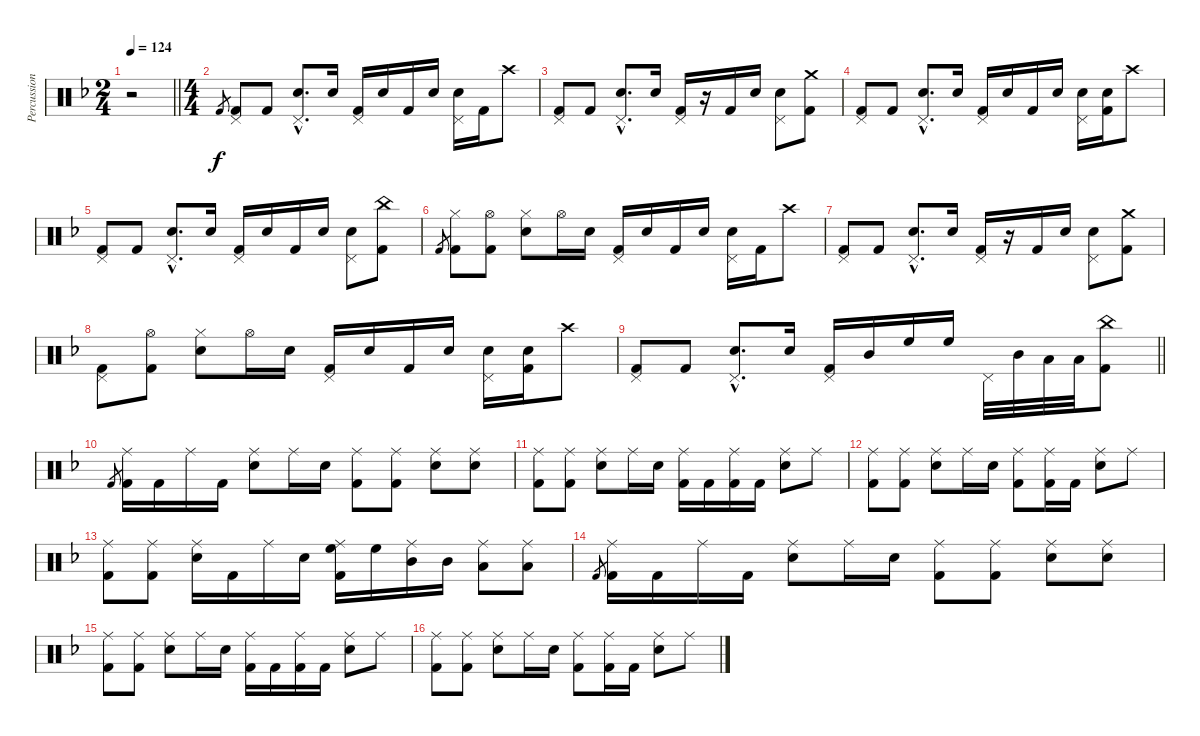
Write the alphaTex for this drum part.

\track ("Percussions" "Percussion") {instrument percussion}
\staff {score}
\articulation defaults
\ts (2 4)
\tempo 124
\clef neutral
\barLineRight lightlight
\ks dminor
r.2{dy f} |
\ts (4 4)
"Kick (hit) 2".8{gr} ("Pedal Hi-Hat (hit)" "Kick (hit) 2").8{volume 14} "Kick (hit) 2".8 ("Pedal Hi-Hat (hit)"{hac} "Snare (hit) 2"{hac}).8{d} "Snare (hit) 2".16 ("Pedal Hi-Hat (hit)" "Kick (hit) 2").16 "Snare (hit) 2".16 "Kick (hit) 2".16 "Snare (hit) 2".16 ("Pedal Hi-Hat (hit)" "Snare (hit) 2").16 "Kick (hit) 2".16 "Crash high (hit)".8 |
("Pedal Hi-Hat (hit)" "Kick (hit) 2").8 "Kick (hit) 2".8 ("Pedal Hi-Hat (hit)"{hac} "Snare (hit) 2"{hac}).8{d} "Snare (hit) 2".16 ("Pedal Hi-Hat (hit)" "Kick (hit) 2").16 r.16 "Kick (hit) 2".16 "Snare (hit) 2".16 ("Pedal Hi-Hat (hit)" "Snare (hit) 2").8 ("Crash medium (hit)" "Kick (hit) 2").8 |
("Pedal Hi-Hat (hit)" "Kick (hit) 2").8 "Kick (hit) 2".8 ("Pedal Hi-Hat (hit)"{hac} "Snare (hit) 2"{hac}).8{d} "Snare (hit) 2".16 ("Pedal Hi-Hat (hit)" "Kick (hit) 2").16 "Snare (hit) 2".16 "Kick (hit) 2".16 "Snare (hit) 2".16 ("Pedal Hi-Hat (hit)" "Snare (hit) 2").16 ("Snare (hit) 2" "Kick (hit) 2").16 "Crash high (hit)".8 |
("Pedal Hi-Hat (hit)" "Kick (hit) 2").8 "Kick (hit) 2".8 ("Pedal Hi-Hat (hit)"{hac} "Snare (hit) 2"{hac}).8{d} "Snare (hit) 2".16 ("Pedal Hi-Hat (hit)" "Kick (hit) 2").16 "Snare (hit) 2".16 "Kick (hit) 2".16 "Snare (hit) 2".16 ("Pedal Hi-Hat (hit)" "Snare (hit) 2").8 ("China (hit)" "Kick (hit) 2").8 |
"Kick (hit) 2".8{gr} ("Hi-Hat (closed)" "Kick (hit) 2").8 ("Hi-Hat (open)" "Kick (hit) 2").8 ("Hi-Hat (closed)" "Snare (hit) 2").8 "Hi-Hat (open)".16 "Snare (hit) 2".16 ("Pedal Hi-Hat (hit)" "Kick (hit) 2").16 "Snare (hit) 2".16 "Kick (hit) 2".16 "Snare (hit) 2".16 ("Pedal Hi-Hat (hit)" "Snare (hit) 2").16 "Kick (hit) 2".16 "Crash high (hit)".8 |
("Pedal Hi-Hat (hit)" "Kick (hit) 2").8 "Kick (hit) 2".8 ("Pedal Hi-Hat (hit)"{hac} "Snare (hit) 2"{hac}).8{d} "Snare (hit) 2".16 ("Pedal Hi-Hat (hit)" "Kick (hit) 2").16 r.16 "Kick (hit) 2".16 "Snare (hit) 2".16 ("Pedal Hi-Hat (hit)" "Snare (hit) 2").8 ("Crash medium (hit)" "Kick (hit) 2").8 |
("Pedal Hi-Hat (hit)" "Kick (hit) 2").8 ("Hi-Hat (open)" "Kick (hit) 2").8 ("Hi-Hat (closed)" "Snare (hit) 2").8 "Hi-Hat (open)".16 "Snare (hit) 2".16 ("Pedal Hi-Hat (hit)" "Kick (hit) 2").16 "Snare (hit) 2".16 "Kick (hit) 2".16 "Snare (hit) 2".16 ("Pedal Hi-Hat (hit)" "Snare (hit) 2").16 ("Snare (hit) 2" "Kick (hit) 2").16 "Crash high (hit)".8 |
\barLineRight lightlight
("Pedal Hi-Hat (hit)" "Kick (hit) 2").8 "Kick (hit) 2".8 ("Pedal Hi-Hat (hit)"{hac} "Snare (hit) 2"{hac}).8{d} "Snare (hit) 2".16 ("Pedal Hi-Hat (hit)" "Kick (hit) 2").16 "Mid Tom (hit)".16 "High Floor Tom (hit)".16 "High Floor Tom (hit)".16 "Pedal Hi-Hat (hit)".32 "Mid Tom (hit)".32 "Low Tom (hit)".32 "Low Tom (hit)".32 ("China (hit)" "Kick (hit) 2").8 |
"Kick (hit) 2".8{gr} ("Ride (middle)" "Kick (hit) 2").16 "Kick (hit) 2".16 "Ride (middle)".16 "Kick (hit) 2".16 ("Ride (middle)" "Snare (hit) 2").8 "Ride (middle)".16 "Snare (hit) 2".16 ("Ride (middle)" "Kick (hit) 2").8 ("Ride (middle)" "Kick (hit) 2").8 ("Ride (middle)" "Snare (hit) 2").8 ("Ride (middle)" "Snare (hit) 2").8 |
("Ride (middle)" "Kick (hit) 2").8 ("Ride (middle)" "Kick (hit) 2").8 ("Ride (middle)" "Snare (hit) 2").8 "Ride (middle)".16 "Snare (hit) 2".16 ("Ride (middle)" "Kick (hit) 2").16 "Kick (hit) 2".16 ("Ride (middle)" "Kick (hit) 2").16 "Kick (hit) 2".16 ("Ride (middle)" "Snare (hit) 2").8 "Ride (middle)".8 |
("Ride (middle)" "Kick (hit) 2").8 ("Ride (middle)" "Kick (hit) 2").8 ("Ride (middle)" "Snare (hit) 2").8 "Ride (middle)".16 "Snare (hit) 2".16 ("Ride (middle)" "Kick (hit) 2").8 ("Ride (middle)" "Kick (hit) 2").16 "Kick (hit) 2".16 ("Ride (middle)" "Snare (hit) 2").8 "Ride (middle)".8 |
("Ride (middle)" "Kick (hit) 2").8 ("Ride (middle)" "Kick (hit) 2").8 ("Ride (middle)" "Snare (hit) 2").16 "Kick (hit) 2".16 "Ride (middle)".16 "Snare (hit) 2".16 ("Ride (middle)" "High Floor Tom (hit)" "Kick (hit) 2").16 "High Floor Tom (hit)".16 ("Ride (middle)" "Mid Tom (hit)").16 "Mid Tom (hit)".16 ("Ride (middle)" "Low Tom (hit)").8 ("Ride (middle)" "Low Floor Tom (hit)").8 |
"Kick (hit) 2".8{gr} ("Ride (middle)" "Kick (hit) 2").16 "Kick (hit) 2".16 "Ride (middle)".16 "Kick (hit) 2".16 ("Ride (middle)" "Snare (hit) 2").8 "Ride (middle)".16 "Snare (hit) 2".16 ("Ride (middle)" "Kick (hit) 2").8 ("Ride (middle)" "Kick (hit) 2").8 ("Ride (middle)" "Snare (hit) 2").8 ("Ride (middle)" "Snare (hit) 2").8 |
("Ride (middle)" "Kick (hit) 2").8 ("Ride (middle)" "Kick (hit) 2").8 ("Ride (middle)" "Snare (hit) 2").8 "Ride (middle)".16 "Snare (hit) 2".16 ("Ride (middle)" "Kick (hit) 2").16 "Kick (hit) 2".16 ("Ride (middle)" "Kick (hit) 2").16 "Kick (hit) 2".16 ("Ride (middle)" "Snare (hit) 2").8 "Ride (middle)".8 |
("Ride (middle)" "Kick (hit) 2").8 ("Ride (middle)" "Kick (hit) 2").8 ("Ride (middle)" "Snare (hit) 2").8 "Ride (middle)".16 "Snare (hit) 2".16 ("Ride (middle)" "Kick (hit) 2").8 ("Ride (middle)" "Kick (hit) 2").16 "Kick (hit) 2".16 ("Ride (middle)" "Snare (hit) 2").8 "Ride (middle)".8
